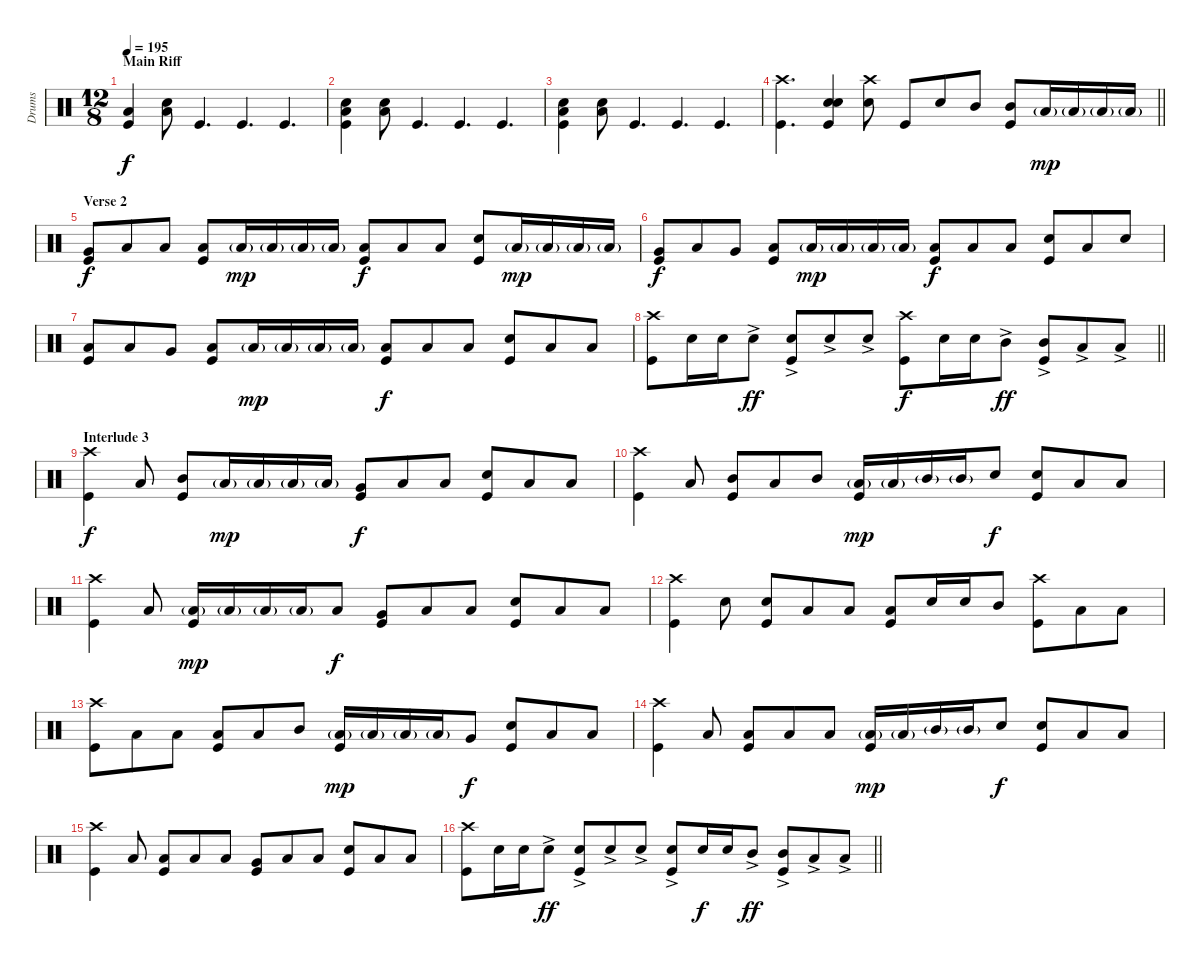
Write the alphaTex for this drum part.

\track ("Drums" "Drums") {instrument percussion}
\staff {score}
\articulation defaults
\ts (12 8)
\section ("" "Main Riff")
\tempo 195
\clef neutral
\ks c
("Low Tom (hit)" "Kick (hit)").4{dy f} ("Low Tom (hit)" "Snare (hit) 2").8 "Kick (hit)".4{d} "Kick (hit)".4{d} "Kick (hit)".4{d} |
("Low Tom (hit)" "Snare (hit) 2" "Kick (hit)").4 ("Low Tom (hit)" "Snare (hit) 2").8 "Kick (hit)".4{d} "Kick (hit)".4{d} "Kick (hit)".4{d} |
("Low Tom (hit)" "Snare (hit) 2" "Kick (hit)").4 ("Low Tom (hit)" "Snare (hit) 2").8 "Kick (hit)".4{d} "Kick (hit)".4{d} "Kick (hit)".4{d} |
\barLineRight lightlight
("Crash high (hit)" "Kick (hit)").4{d} ("Snare (hit) 2" "Snare (hit) 2" "Kick (hit)").4 ("Crash high (hit)" "Snare (hit) 2").8 "Kick (hit)".8 "Snare (hit) 2".8 "Mid Tom (hit)".8 ("Mid Tom (hit)" "Kick (hit)").8 "Low Tom (hit)"{g}.16{dy mp} "Low Tom (hit)"{g}.16 "Low Tom (hit)"{g}.16 "Low Tom (hit)"{g}.16 |
\section ("" "Verse 2")
("Very Low Tom (hit)" "Kick (hit)").8{dy f} "Low Tom (hit)".8 "Low Tom (hit)".8 ("Low Tom (hit)" "Kick (hit)").8 "Low Tom (hit)"{g}.16{dy mp} "Low Tom (hit)"{g}.16 "Low Tom (hit)"{g}.16 "Low Tom (hit)"{g}.16 ("Low Tom (hit)" "Kick (hit)").8{dy f} "Low Tom (hit)".8 "Low Tom (hit)".8 ("Snare (hit) 2" "Kick (hit)").8 "Low Tom (hit)"{g}.16{dy mp} "Low Tom (hit)"{g}.16 "Low Tom (hit)"{g}.16 "Low Tom (hit)"{g}.16 |
("Very Low Tom (hit)" "Kick (hit)").8{dy f} "Low Tom (hit)".8 "Very Low Tom (hit)".8 ("Low Tom (hit)" "Kick (hit)").8 "Low Tom (hit)"{g}.16{dy mp} "Low Tom (hit)"{g}.16 "Low Tom (hit)"{g}.16 "Low Tom (hit)"{g}.16 ("Low Tom (hit)" "Kick (hit)").8{dy f} "Low Tom (hit)".8 "Low Tom (hit)".8 ("Snare (hit) 2" "Kick (hit)").8 "Low Tom (hit)".8 "Snare (hit) 2".8 |
("Low Tom (hit)" "Kick (hit)").8 "Low Tom (hit)".8 "Very Low Tom (hit)".8 ("Low Tom (hit)" "Kick (hit)").8 "Low Tom (hit)"{g}.16{dy mp} "Low Tom (hit)"{g}.16 "Low Tom (hit)"{g}.16 "Low Tom (hit)"{g}.16 ("Low Tom (hit)" "Kick (hit)").8{dy f} "Low Tom (hit)".8 "Low Tom (hit)".8 ("Snare (hit) 2" "Kick (hit)").8 "Low Tom (hit)".8 "Low Tom (hit)".8 |
\barLineRight lightlight
("Crash high (hit)" "Kick (hit)").8 "Snare (hit) 2".16 "Snare (hit) 2".16 "Snare (hit) 2"{ac}.8{dy ff} ("Snare (hit) 2"{ac} "Kick (hit)").8 "Snare (hit) 2"{ac}.8 "Snare (hit) 2"{ac}.8 ("Crash high (hit)" "Kick (hit)").8{dy f} "Snare (hit) 2".16 "Snare (hit) 2".16 "Mid Tom (hit)"{ac}.8{dy ff} ("Mid Tom (hit)"{ac} "Kick (hit)").8 "Low Tom (hit)"{ac}.8 "Low Tom (hit)"{ac}.8 |
\section ("" "Interlude 3")
("Crash high (hit)" "Kick (hit)").4{dy f} "Low Tom (hit)".8 ("Mid Tom (hit)" "Kick (hit)").8 "Low Tom (hit)"{g}.16{dy mp} "Low Tom (hit)"{g}.16 "Low Tom (hit)"{g}.16 "Low Tom (hit)"{g}.16 ("Very Low Tom (hit)" "Kick (hit)").8{dy f} "Low Tom (hit)".8 "Low Tom (hit)".8 ("Snare (hit) 2" "Kick (hit)").8 "Low Tom (hit)".8 "Low Tom (hit)".8 |
("Crash high (hit)" "Kick (hit)").4 "Low Tom (hit)".8 ("Mid Tom (hit)" "Kick (hit)").8 "Low Tom (hit)".8 "Mid Tom (hit)".8 ("Low Tom (hit)"{g} "Kick (hit)").16{dy mp} "Low Tom (hit)"{g}.16 "Mid Tom (hit)"{g}.16 "Mid Tom (hit)"{g}.16 "Snare (hit) 2".8{dy f} ("Snare (hit) 2" "Kick (hit)").8 "Low Tom (hit)".8 "Low Tom (hit)".8 |
("Crash high (hit)" "Kick (hit)").4 "Low Tom (hit)".8 ("Low Tom (hit)"{g} "Kick (hit)").16{dy mp} "Low Tom (hit)"{g}.16 "Low Tom (hit)"{g}.16 "Low Tom (hit)"{g}.16 "Low Tom (hit)".8{dy f} ("Very Low Tom (hit)" "Kick (hit)").8 "Low Tom (hit)".8 "Low Tom (hit)".8 ("Snare (hit) 2" "Kick (hit)").8 "Low Tom (hit)".8 "Low Tom (hit)".8 |
("Crash high (hit)" "Kick (hit)").4 "Snare (hit) 2".8 ("Snare (hit) 2" "Kick (hit)").8 "Low Tom (hit)".8 "Low Tom (hit)".8 ("Low Tom (hit)" "Kick (hit)").8 "Snare (hit) 2".16 "Snare (hit) 2".16 "Mid Tom (hit)".8 ("Crash high (hit)" "Kick (hit)").8 "Low Tom (hit)".8 "Low Tom (hit)".8 |
("Crash high (hit)" "Kick (hit)").8 "Low Tom (hit)".8 "Low Tom (hit)".8 ("Low Tom (hit)" "Kick (hit)").8 "Low Tom (hit)".8 "Mid Tom (hit)".8 ("Low Tom (hit)"{g} "Kick (hit)").16{dy mp} "Low Tom (hit)"{g}.16 "Low Tom (hit)"{g}.16 "Low Tom (hit)"{g}.16 "Very Low Tom (hit)".8{dy f} ("Snare (hit) 2" "Kick (hit)").8 "Low Tom (hit)".8 "Low Tom (hit)".8 |
("Crash high (hit)" "Kick (hit)").4 "Low Tom (hit)".8 ("Low Tom (hit)" "Kick (hit)").8 "Low Tom (hit)".8 "Low Tom (hit)".8 ("Low Tom (hit)"{g} "Kick (hit)").16{dy mp} "Low Tom (hit)"{g}.16 "Mid Tom (hit)"{g}.16 "Mid Tom (hit)"{g}.16 "Snare (hit) 2".8{dy f} ("Snare (hit) 2" "Kick (hit)").8 "Low Tom (hit)".8 "Low Tom (hit)".8 |
("Crash high (hit)" "Kick (hit)").4 "Low Tom (hit)".8 ("Low Tom (hit)" "Kick (hit)").8 "Low Tom (hit)".8 "Low Tom (hit)".8 ("Very Low Tom (hit)" "Kick (hit)").8 "Low Tom (hit)".8 "Low Tom (hit)".8 ("Snare (hit) 2" "Kick (hit)").8 "Low Tom (hit)".8 "Low Tom (hit)".8 |
\barLineRight lightlight
("Crash high (hit)" "Kick (hit)").8 "Snare (hit) 2".16 "Snare (hit) 2".16 "Snare (hit) 2"{ac}.8{dy ff} ("Snare (hit) 2"{ac} "Kick (hit)").8 "Snare (hit) 2"{ac}.8 "Snare (hit) 2"{ac}.8 ("Snare (hit) 2"{ac} "Kick (hit)").8 "Snare (hit) 2".16{dy f} "Snare (hit) 2".16 "Mid Tom (hit)"{ac}.8{dy ff} ("Mid Tom (hit)"{ac} "Kick (hit)").8 "Low Tom (hit)"{ac}.8 "Low Tom (hit)"{ac}.8
